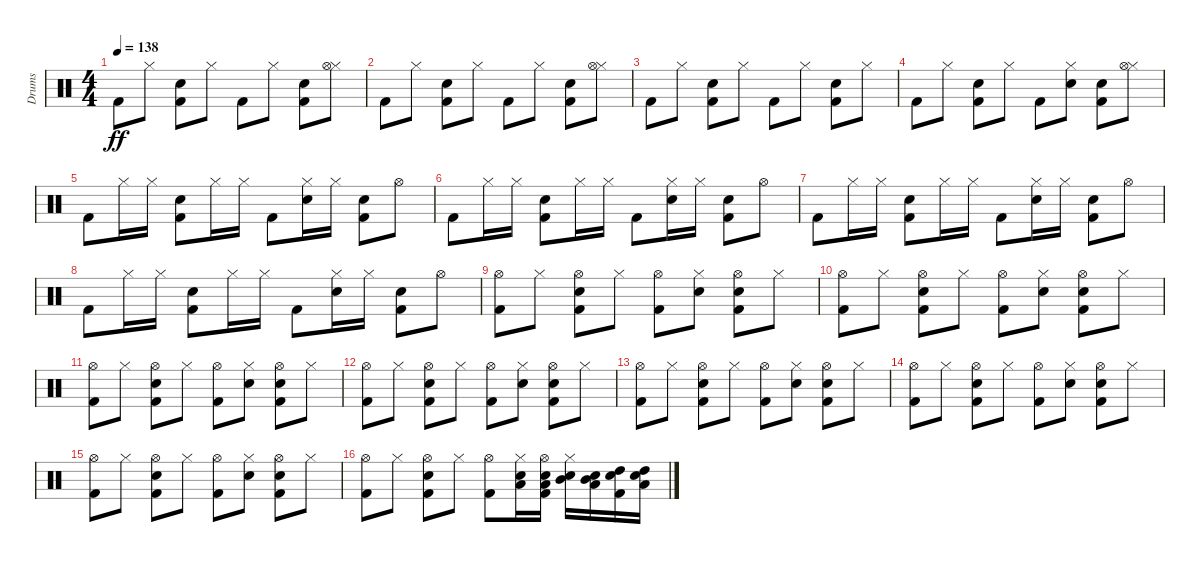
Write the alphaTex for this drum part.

\track ("Drums" "Drums") {instrument percussion}
\staff {score}
\articulation defaults
\ts (4 4)
\tempo 138
\clef neutral
\ks c "Kick (hit) 2".8{dy ff} "Hi-Hat (closed)".8
("Kick (hit) 2" "Electric Snare (hit)").8 "Hi-Hat (closed)".8 "Kick (hit) 2".8 "Hi-Hat (closed)".8 ("Kick (hit) 2" "Electric Snare (hit)").8 ("Hi-Hat (closed)" "Hi-Hat (open)").8 |
"Kick (hit) 2".8 "Hi-Hat (closed)".8 ("Kick (hit) 2" "Electric Snare (hit)").8 "Hi-Hat (closed)".8 "Kick (hit) 2".8 "Hi-Hat (closed)".8 ("Kick (hit) 2" "Electric Snare (hit)").8 ("Hi-Hat (closed)" "Hi-Hat (open)").8 |
"Kick (hit) 2".8 "Hi-Hat (closed)".8 ("Kick (hit) 2" "Electric Snare (hit)").8 "Hi-Hat (closed)".8 "Kick (hit) 2".8 "Hi-Hat (closed)".8 ("Kick (hit) 2" "Electric Snare (hit)").8 "Hi-Hat (closed)".8 |
"Kick (hit) 2".8 "Hi-Hat (closed)".8 ("Kick (hit) 2" "Electric Snare (hit)").8 "Hi-Hat (closed)".8 "Kick (hit) 2".8 ("Electric Snare (hit)" "Hi-Hat (closed)").8 ("Kick (hit) 2" "Electric Snare (hit)").8 ("Hi-Hat (closed)" "Hi-Hat (open)").8 |
"Kick (hit) 2".8 "Hi-Hat (closed)".16 "Hi-Hat (closed)".16 ("Kick (hit) 2" "Electric Snare (hit)").8 "Hi-Hat (closed)".16 "Hi-Hat (closed)".16 "Kick (hit) 2".8 ("Electric Snare (hit)" "Hi-Hat (closed)").16 "Hi-Hat (closed)".16 ("Kick (hit) 2" "Electric Snare (hit)").8 "Hi-Hat (open)".8 |
"Kick (hit) 2".8 "Hi-Hat (closed)".16 "Hi-Hat (closed)".16 ("Kick (hit) 2" "Electric Snare (hit)").8 "Hi-Hat (closed)".16 "Hi-Hat (closed)".16 "Kick (hit) 2".8 ("Electric Snare (hit)" "Hi-Hat (closed)").16 "Hi-Hat (closed)".16 ("Kick (hit) 2" "Electric Snare (hit)").8 "Hi-Hat (open)".8 |
"Kick (hit) 2".8 "Hi-Hat (closed)".16 "Hi-Hat (closed)".16 ("Kick (hit) 2" "Electric Snare (hit)").8 "Hi-Hat (closed)".16 "Hi-Hat (closed)".16 "Kick (hit) 2".8 ("Electric Snare (hit)" "Hi-Hat (closed)").16 "Hi-Hat (closed)".16 ("Kick (hit) 2" "Electric Snare (hit)").8 "Hi-Hat (open)".8 |
"Kick (hit) 2".8 "Hi-Hat (closed)".16 "Hi-Hat (closed)".16 ("Kick (hit) 2" "Electric Snare (hit)").8 "Hi-Hat (closed)".16 "Hi-Hat (closed)".16 "Kick (hit) 2".8 ("Electric Snare (hit)" "Hi-Hat (closed)").16 "Hi-Hat (closed)".16 ("Kick (hit) 2" "Electric Snare (hit)").8 "Hi-Hat (open)".8 |
("Kick (hit) 2" "Hi-Hat (open)").8 "Hi-Hat (closed)".8 ("Kick (hit) 2" "Electric Snare (hit)" "Hi-Hat (open)").8 "Hi-Hat (closed)".8 ("Kick (hit) 2" "Hi-Hat (open)").8 ("Electric Snare (hit)" "Hi-Hat (closed)").8 ("Kick (hit) 2" "Electric Snare (hit)" "Hi-Hat (open)").8 "Hi-Hat (closed)".8 |
("Kick (hit) 2" "Hi-Hat (open)").8 "Hi-Hat (closed)".8 ("Kick (hit) 2" "Electric Snare (hit)" "Hi-Hat (open)").8 "Hi-Hat (closed)".8 ("Kick (hit) 2" "Hi-Hat (open)").8 ("Electric Snare (hit)" "Hi-Hat (closed)").8 ("Kick (hit) 2" "Electric Snare (hit)" "Hi-Hat (open)").8 "Hi-Hat (closed)".8 |
("Kick (hit) 2" "Hi-Hat (open)").8 "Hi-Hat (closed)".8 ("Kick (hit) 2" "Electric Snare (hit)" "Hi-Hat (open)").8 "Hi-Hat (closed)".8 ("Kick (hit) 2" "Hi-Hat (open)").8 ("Electric Snare (hit)" "Hi-Hat (closed)").8 ("Kick (hit) 2" "Electric Snare (hit)" "Hi-Hat (open)").8 "Hi-Hat (closed)".8 |
("Kick (hit) 2" "Hi-Hat (open)").8 "Hi-Hat (closed)".8 ("Kick (hit) 2" "Electric Snare (hit)" "Hi-Hat (open)").8 "Hi-Hat (closed)".8 ("Kick (hit) 2" "Hi-Hat (open)").8 ("Electric Snare (hit)" "Hi-Hat (closed)").8 ("Kick (hit) 2" "Electric Snare (hit)" "Hi-Hat (open)").8 "Hi-Hat (closed)".8 |
("Kick (hit) 2" "Hi-Hat (open)").8 "Hi-Hat (closed)".8 ("Kick (hit) 2" "Electric Snare (hit)" "Hi-Hat (open)").8 "Hi-Hat (closed)".8 ("Kick (hit) 2" "Hi-Hat (open)").8 ("Electric Snare (hit)" "Hi-Hat (closed)").8 ("Kick (hit) 2" "Electric Snare (hit)" "Hi-Hat (open)").8 "Hi-Hat (closed)".8 |
("Kick (hit) 2" "Hi-Hat (open)").8 "Hi-Hat (closed)".8 ("Kick (hit) 2" "Electric Snare (hit)" "Hi-Hat (open)").8 "Hi-Hat (closed)".8 ("Kick (hit) 2" "Hi-Hat (open)").8 ("Electric Snare (hit)" "Hi-Hat (closed)").8 ("Kick (hit) 2" "Electric Snare (hit)" "Hi-Hat (open)").8 "Hi-Hat (closed)".8 |
("Kick (hit) 2" "Hi-Hat (open)").8 "Hi-Hat (closed)".8 ("Kick (hit) 2" "Electric Snare (hit)" "Hi-Hat (open)").8 "Hi-Hat (closed)".8 ("Kick (hit) 2" "Hi-Hat (open)").8 ("Electric Snare (hit)" "Hi-Hat (closed)").8 ("Kick (hit) 2" "Electric Snare (hit)" "Hi-Hat (open)").8 "Hi-Hat (closed)".8 |
("Kick (hit) 2" "Hi-Hat (open)").8 "Hi-Hat (closed)".8 ("Kick (hit) 2" "Electric Snare (hit)" "Hi-Hat (open)").8 "Hi-Hat (closed)".8 ("Kick (hit) 2" "Hi-Hat (open)").8 ("Electric Snare (hit)" "Hi-Hat (closed)" "Low Tom (hit)").16 ("Kick (hit) 2" "Electric Snare (hit)" "Hi-Hat (open)" "Low Tom (hit)").16 ("Hi-Hat (closed)" "Mid Tom (hit)" "Electric Snare (hit)").16 ("Electric Snare (hit)" "Mid Tom (hit)" "Low Floor Tom (hit)").16 ("Kick (hit) 2" "High Tom (hit)" "Electric Snare (hit)").16 ("Electric Snare (hit)" "High Tom (hit)" "Low Floor Tom (hit)").16
